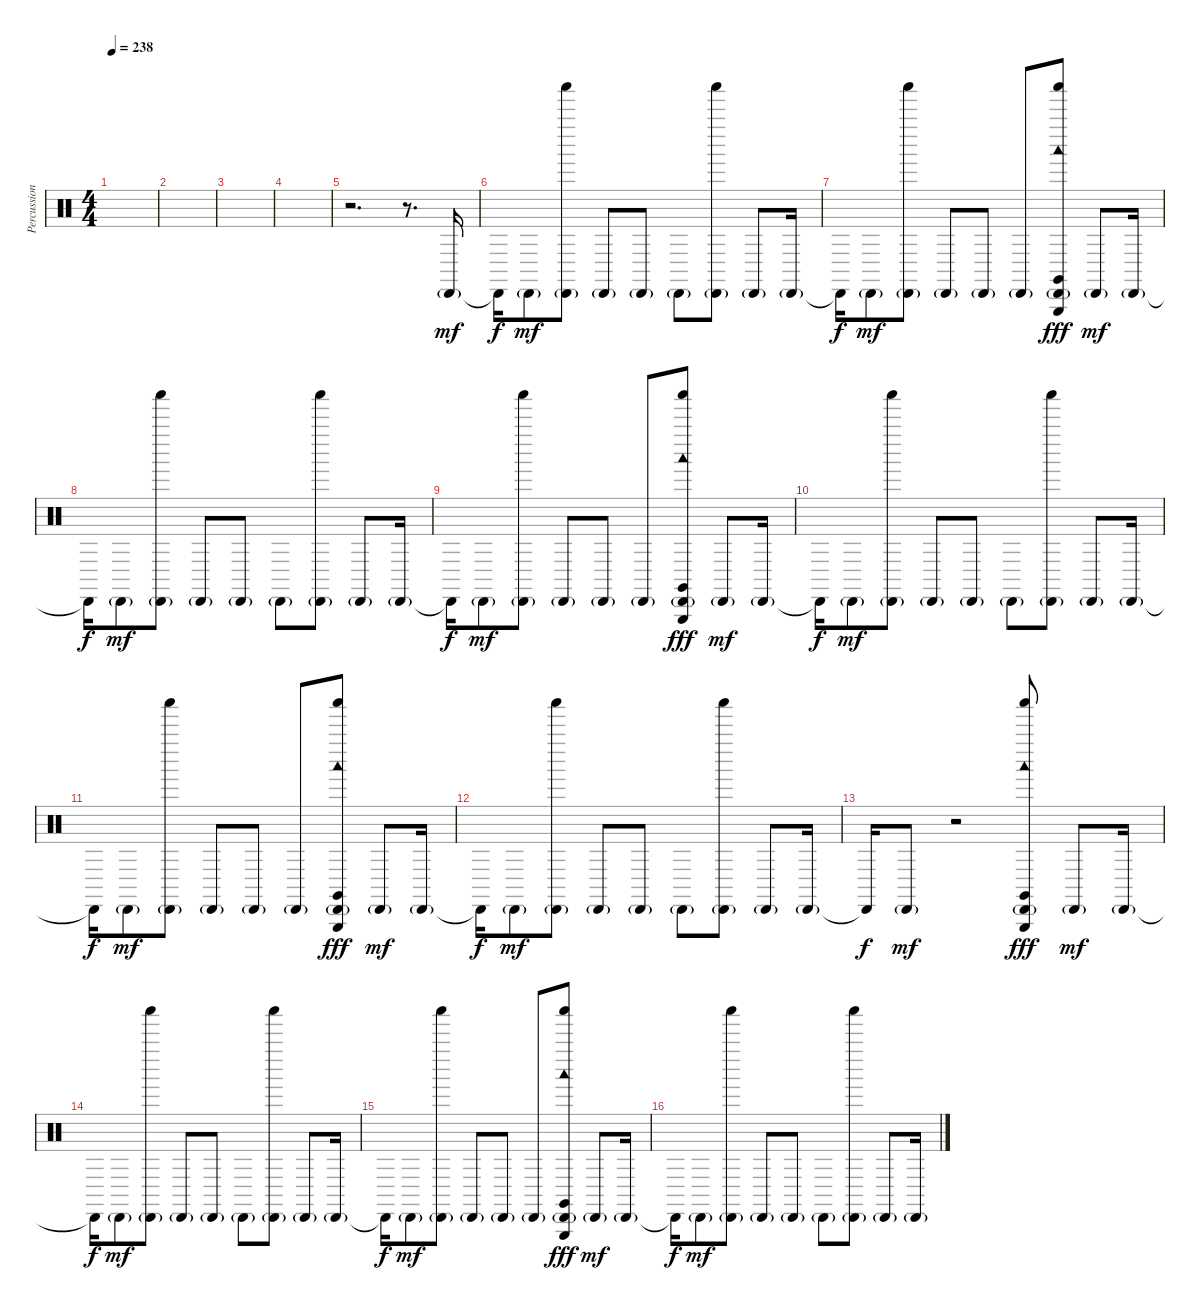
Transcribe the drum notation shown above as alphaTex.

\track ("Percussion" "Percussion") {instrument percussion}
\staff {score}
\articulation defaults
\ts (4 4)
\tempo 238
\clef neutral
\ks c
|
|
|
|
r.2{d} r.8{d} "Cabasa (hit)"{g}.16{dy mf} |
"Cabasa (hit)"{t}.16{dy f} "Cabasa (hit)"{g}.8{dy mf} ("Shaker (hit)" "Cabasa (hit)"{g}).8 "Cabasa (hit)"{g}.8 "Cabasa (hit)"{g}.8 "Cabasa (hit)"{g}.8 ("Shaker (hit)" "Cabasa (hit)"{g}).8 "Cabasa (hit)"{g}.8 "Cabasa (hit)"{g}.16 |
"Cabasa (hit)"{t}.16{dy f} "Cabasa (hit)"{g}.8{dy mf} ("Shaker (hit)" "Cabasa (hit)"{g}).8 "Cabasa (hit)"{g}.8 "Cabasa (hit)"{g}.8 "Cabasa (hit)"{g}.8 ("Shaker (hit)" "Cabasa (hit)"{g} "Claves (hit)" "Woodblock low (hit)" "Triangle (hit)").8{dy fff} "Cabasa (hit)"{g}.8{dy mf} "Cabasa (hit)"{g}.16 |
"Cabasa (hit)"{t}.16{dy f} "Cabasa (hit)"{g}.8{dy mf} ("Shaker (hit)" "Cabasa (hit)"{g}).8 "Cabasa (hit)"{g}.8 "Cabasa (hit)"{g}.8 "Cabasa (hit)"{g}.8 ("Shaker (hit)" "Cabasa (hit)"{g}).8 "Cabasa (hit)"{g}.8 "Cabasa (hit)"{g}.16 |
"Cabasa (hit)"{t}.16{dy f} "Cabasa (hit)"{g}.8{dy mf} ("Shaker (hit)" "Cabasa (hit)"{g}).8 "Cabasa (hit)"{g}.8 "Cabasa (hit)"{g}.8 "Cabasa (hit)"{g}.8 ("Shaker (hit)" "Cabasa (hit)"{g} "Claves (hit)" "Woodblock low (hit)" "Triangle (hit)").8{dy fff} "Cabasa (hit)"{g}.8{dy mf} "Cabasa (hit)"{g}.16 |
"Cabasa (hit)"{t}.16{dy f} "Cabasa (hit)"{g}.8{dy mf} ("Shaker (hit)" "Cabasa (hit)"{g}).8 "Cabasa (hit)"{g}.8 "Cabasa (hit)"{g}.8 "Cabasa (hit)"{g}.8 ("Shaker (hit)" "Cabasa (hit)"{g}).8 "Cabasa (hit)"{g}.8 "Cabasa (hit)"{g}.16 |
"Cabasa (hit)"{t}.16{dy f} "Cabasa (hit)"{g}.8{dy mf} ("Shaker (hit)" "Cabasa (hit)"{g}).8 "Cabasa (hit)"{g}.8 "Cabasa (hit)"{g}.8 "Cabasa (hit)"{g}.8 ("Shaker (hit)" "Cabasa (hit)"{g} "Claves (hit)" "Woodblock low (hit)" "Triangle (hit)").8{dy fff} "Cabasa (hit)"{g}.8{dy mf} "Cabasa (hit)"{g}.16 |
"Cabasa (hit)"{t}.16{dy f} "Cabasa (hit)"{g}.8{dy mf} ("Shaker (hit)" "Cabasa (hit)"{g}).8 "Cabasa (hit)"{g}.8 "Cabasa (hit)"{g}.8 "Cabasa (hit)"{g}.8 ("Shaker (hit)" "Cabasa (hit)"{g}).8 "Cabasa (hit)"{g}.8 "Cabasa (hit)"{g}.16 |
"Cabasa (hit)"{t}.16{dy f} "Cabasa (hit)"{g}.8{dy mf} r.2 ("Shaker (hit)" "Cabasa (hit)"{g} "Claves (hit)" "Woodblock low (hit)" "Triangle (hit)").8{dy fff} "Cabasa (hit)"{g}.8{dy mf} "Cabasa (hit)"{g}.16 |
"Cabasa (hit)"{t}.16{dy f} "Cabasa (hit)"{g}.8{dy mf} ("Shaker (hit)" "Cabasa (hit)"{g}).8 "Cabasa (hit)"{g}.8 "Cabasa (hit)"{g}.8 "Cabasa (hit)"{g}.8 ("Shaker (hit)" "Cabasa (hit)"{g}).8 "Cabasa (hit)"{g}.8 "Cabasa (hit)"{g}.16 |
"Cabasa (hit)"{t}.16{dy f} "Cabasa (hit)"{g}.8{dy mf} ("Shaker (hit)" "Cabasa (hit)"{g}).8 "Cabasa (hit)"{g}.8 "Cabasa (hit)"{g}.8 "Cabasa (hit)"{g}.8 ("Shaker (hit)" "Cabasa (hit)"{g} "Claves (hit)" "Woodblock low (hit)" "Triangle (hit)").8{dy fff} "Cabasa (hit)"{g}.8{dy mf} "Cabasa (hit)"{g}.16 |
"Cabasa (hit)"{t}.16{dy f} "Cabasa (hit)"{g}.8{dy mf} ("Shaker (hit)" "Cabasa (hit)"{g}).8 "Cabasa (hit)"{g}.8 "Cabasa (hit)"{g}.8 "Cabasa (hit)"{g}.8 ("Shaker (hit)" "Cabasa (hit)"{g}).8 "Cabasa (hit)"{g}.8 "Cabasa (hit)"{g}.16
